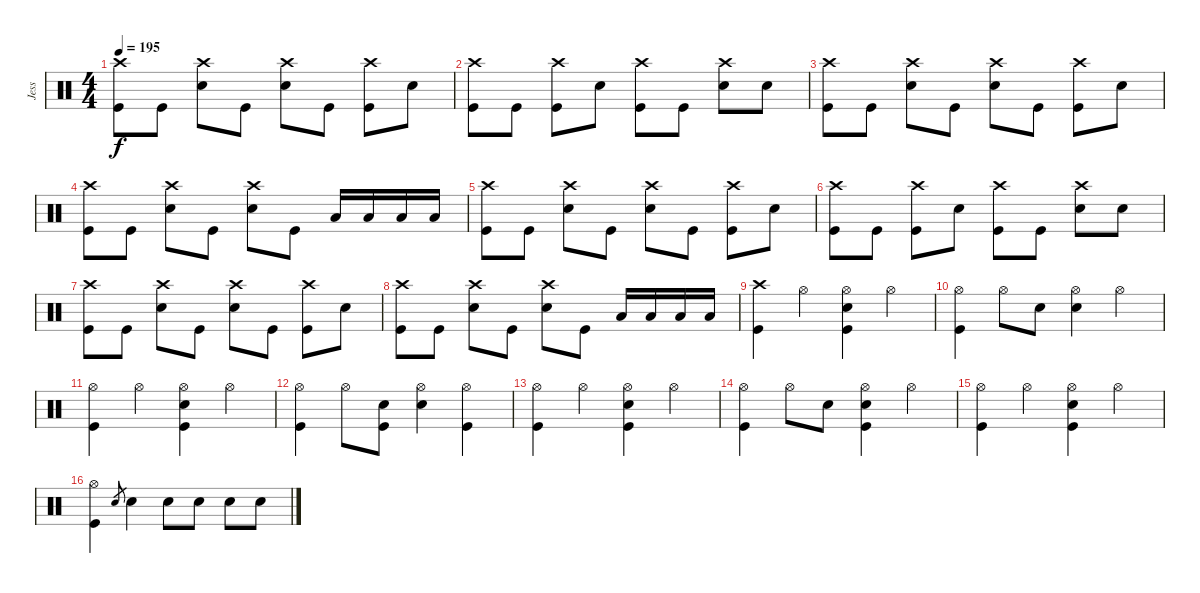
\track ("Jess" "Jess") {instrument percussion}
\staff {score}
\articulation defaults
\ts (4 4)
\tempo 195
\clef neutral
\ks c
("Crash high (hit)" "Kick (hit)").8{dy f} "Kick (hit)".8 ("Crash high (hit)" "Electric Snare (hit)").8 "Kick (hit)".8 ("Crash high (hit)" "Electric Snare (hit)").8 "Kick (hit)".8 ("Crash high (hit)" "Kick (hit)").8 "Electric Snare (hit)".8 |
("Crash high (hit)" "Kick (hit)").8 "Kick (hit)".8 ("Crash high (hit)" "Kick (hit)").8 "Electric Snare (hit)".8 ("Crash high (hit)" "Kick (hit)").8 "Kick (hit)".8 ("Crash high (hit)" "Electric Snare (hit)").8 "Electric Snare (hit)".8 |
("Crash high (hit)" "Kick (hit)").8 "Kick (hit)".8 ("Crash high (hit)" "Electric Snare (hit)").8 "Kick (hit)".8 ("Crash high (hit)" "Electric Snare (hit)").8 "Kick (hit)".8 ("Crash high (hit)" "Kick (hit)").8 "Electric Snare (hit)".8 |
("Crash high (hit)" "Kick (hit)").8 "Kick (hit)".8 ("Crash high (hit)" "Electric Snare (hit)").8 "Kick (hit)".8 ("Crash high (hit)" "Electric Snare (hit)").8 "Kick (hit)".8 "Low Tom (hit)".16 "Low Tom (hit)".16 "Low Floor Tom (hit)".16 "Low Floor Tom (hit)".16 |
("Crash high (hit)" "Kick (hit)").8 "Kick (hit)".8 ("Crash high (hit)" "Electric Snare (hit)").8 "Kick (hit)".8 ("Crash high (hit)" "Electric Snare (hit)").8 "Kick (hit)".8 ("Crash high (hit)" "Kick (hit)").8 "Electric Snare (hit)".8 |
("Crash high (hit)" "Kick (hit)").8 "Kick (hit)".8 ("Crash high (hit)" "Kick (hit)").8 "Electric Snare (hit)".8 ("Crash high (hit)" "Kick (hit)").8 "Kick (hit)".8 ("Crash high (hit)" "Electric Snare (hit)").8 "Electric Snare (hit)".8 |
("Crash high (hit)" "Kick (hit)").8 "Kick (hit)".8 ("Crash high (hit)" "Electric Snare (hit)").8 "Kick (hit)".8 ("Crash high (hit)" "Electric Snare (hit)").8 "Kick (hit)".8 ("Crash high (hit)" "Kick (hit)").8 "Electric Snare (hit)".8 |
("Crash high (hit)" "Kick (hit)").8 "Kick (hit)".8 ("Crash high (hit)" "Electric Snare (hit)").8 "Kick (hit)".8 ("Crash high (hit)" "Electric Snare (hit)").8 "Kick (hit)".8 "Low Tom (hit)".16 "Low Tom (hit)".16 "Low Floor Tom (hit)".16 "Low Floor Tom (hit)".16 |
("Crash high (hit)" "Kick (hit)").4 "Hi-Hat (open)".4 ("Hi-Hat (open)" "Electric Snare (hit)" "Kick (hit)").4 "Hi-Hat (open)".4 |
("Hi-Hat (open)" "Kick (hit)").4 "Hi-Hat (open)".8 "Electric Snare (hit)".8 ("Hi-Hat (open)" "Electric Snare (hit)").4 "Hi-Hat (open)".4 |
("Hi-Hat (open)" "Kick (hit)").4 "Hi-Hat (open)".4 ("Hi-Hat (open)" "Electric Snare (hit)" "Kick (hit)").4 "Hi-Hat (open)".4 |
("Hi-Hat (open)" "Kick (hit)").4 "Hi-Hat (open)".8 ("Electric Snare (hit)" "Kick (hit)").8 ("Hi-Hat (open)" "Electric Snare (hit)").4 ("Hi-Hat (open)" "Kick (hit)").4 |
("Hi-Hat (open)" "Kick (hit)").4 "Hi-Hat (open)".4 ("Hi-Hat (open)" "Electric Snare (hit)" "Kick (hit)").4 "Hi-Hat (open)".4 |
("Hi-Hat (open)" "Kick (hit)").4 "Hi-Hat (open)".8 "Electric Snare (hit)".8 ("Hi-Hat (open)" "Electric Snare (hit)" "Kick (hit)").4 "Hi-Hat (open)".4 |
("Hi-Hat (open)" "Kick (hit)").4 "Hi-Hat (open)".4 ("Hi-Hat (open)" "Electric Snare (hit)" "Kick (hit)").4 "Hi-Hat (open)".4 |
("Hi-Hat (open)" "Kick (hit)").4 "Electric Snare (hit)".8{gr} "Electric Snare (hit)".4 "Electric Snare (hit)".8 "Electric Snare (hit)".8 "Electric Snare (hit)".8 "Electric Snare (hit)".8
